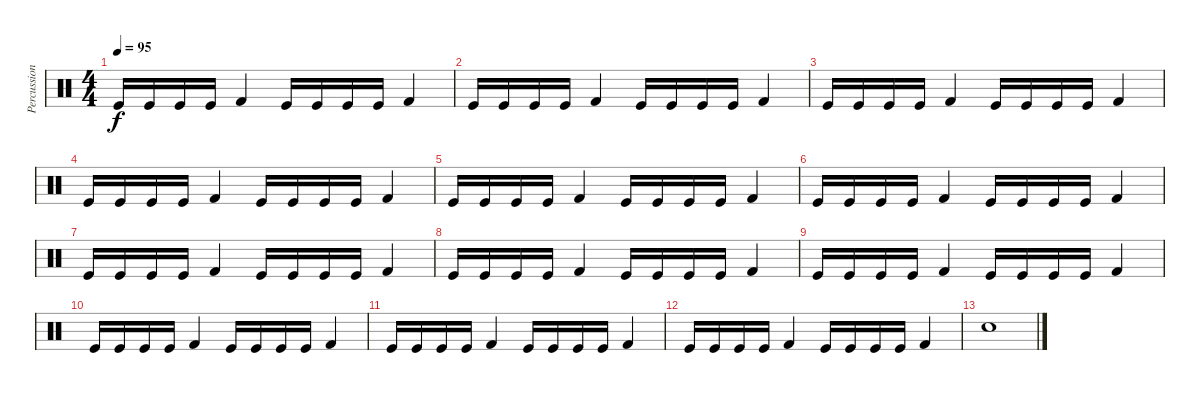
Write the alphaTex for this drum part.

\track ("Percussion" "Percussion") {instrument percussion}
\staff {score}
\articulation defaults
\ts (4 4)
\tempo 95
\clef neutral
\ks c "Kick (hit)".16{dy f} "Kick (hit)".16 "Kick (hit)".16 "Kick (hit)".16 "Kick (hit) 2".4 "Kick (hit)".16 "Kick (hit)".16 "Kick (hit)".16 "Kick (hit)".16 "Kick (hit) 2".4
|
"Kick (hit)".16 "Kick (hit)".16 "Kick (hit)".16 "Kick (hit)".16 "Kick (hit) 2".4 "Kick (hit)".16 "Kick (hit)".16 "Kick (hit)".16 "Kick (hit)".16 "Kick (hit) 2".4 |
"Kick (hit)".16 "Kick (hit)".16 "Kick (hit)".16 "Kick (hit)".16 "Kick (hit) 2".4 "Kick (hit)".16 "Kick (hit)".16 "Kick (hit)".16 "Kick (hit)".16 "Kick (hit) 2".4 |
"Kick (hit)".16 "Kick (hit)".16 "Kick (hit)".16 "Kick (hit)".16 "Kick (hit) 2".4 "Kick (hit)".16 "Kick (hit)".16 "Kick (hit)".16 "Kick (hit)".16 "Kick (hit) 2".4 |
"Kick (hit)".16 "Kick (hit)".16 "Kick (hit)".16 "Kick (hit)".16 "Kick (hit) 2".4 "Kick (hit)".16 "Kick (hit)".16 "Kick (hit)".16 "Kick (hit)".16 "Kick (hit) 2".4 |
"Kick (hit)".16 "Kick (hit)".16 "Kick (hit)".16 "Kick (hit)".16 "Kick (hit) 2".4 "Kick (hit)".16 "Kick (hit)".16 "Kick (hit)".16 "Kick (hit)".16 "Kick (hit) 2".4 |
"Kick (hit)".16 "Kick (hit)".16 "Kick (hit)".16 "Kick (hit)".16 "Kick (hit) 2".4 "Kick (hit)".16 "Kick (hit)".16 "Kick (hit)".16 "Kick (hit)".16 "Kick (hit) 2".4 |
"Kick (hit)".16 "Kick (hit)".16 "Kick (hit)".16 "Kick (hit)".16 "Kick (hit) 2".4 "Kick (hit)".16 "Kick (hit)".16 "Kick (hit)".16 "Kick (hit)".16 "Kick (hit) 2".4 |
"Kick (hit)".16 "Kick (hit)".16 "Kick (hit)".16 "Kick (hit)".16 "Kick (hit) 2".4 "Kick (hit)".16 "Kick (hit)".16 "Kick (hit)".16 "Kick (hit)".16 "Kick (hit) 2".4 |
"Kick (hit)".16 "Kick (hit)".16 "Kick (hit)".16 "Kick (hit)".16 "Kick (hit) 2".4 "Kick (hit)".16 "Kick (hit)".16 "Kick (hit)".16 "Kick (hit)".16 "Kick (hit) 2".4 |
"Kick (hit)".16 "Kick (hit)".16 "Kick (hit)".16 "Kick (hit)".16 "Kick (hit) 2".4 "Kick (hit)".16 "Kick (hit)".16 "Kick (hit)".16 "Kick (hit)".16 "Kick (hit) 2".4 |
"Kick (hit)".16 "Kick (hit)".16 "Kick (hit)".16 "Kick (hit)".16 "Kick (hit) 2".4 "Kick (hit)".16 "Kick (hit)".16 "Kick (hit)".16 "Kick (hit)".16 "Kick (hit) 2".4 |
"Electric Snare (hit)".1
